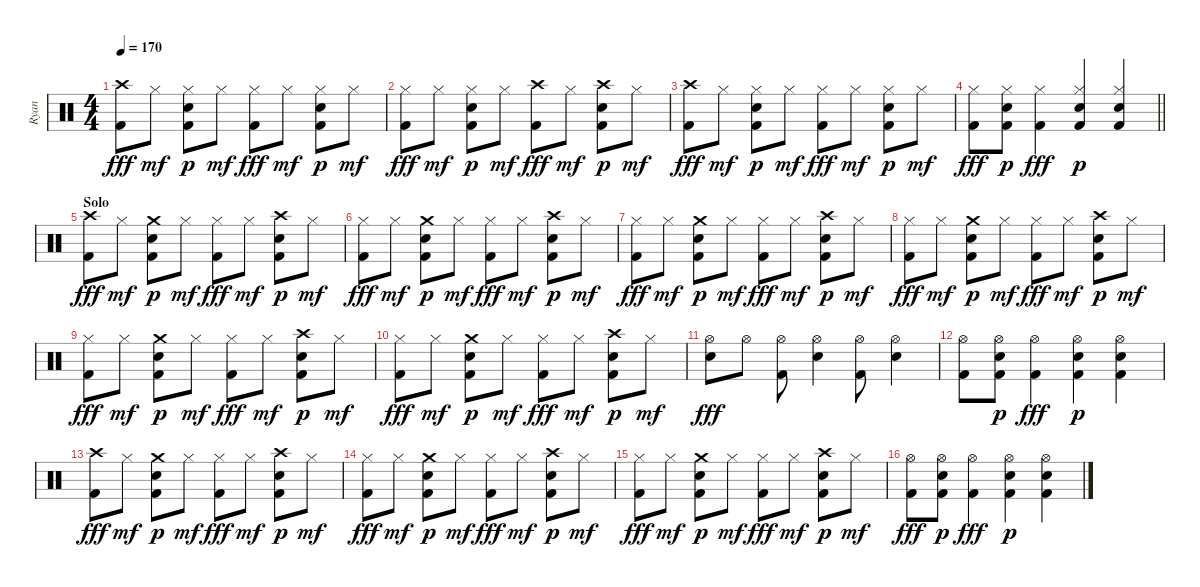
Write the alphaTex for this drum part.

\track ("Ryan" "Ryan") {instrument percussion}
\staff {score}
\articulation defaults
\ts (4 4)
\tempo 170
\clef neutral
\ks c
("Kick (hit) 2" "Crash high (hit)").8{dy fff} "Hi-Hat (closed)".8{dy mf} ("Snare (hit) 2" "Hi-Hat (closed)" "Kick (hit) 2").8{dy p} "Hi-Hat (closed)".8{dy mf} ("Kick (hit) 2" "Hi-Hat (closed)").8{dy fff} "Hi-Hat (closed)".8{dy mf} ("Snare (hit) 2" "Hi-Hat (closed)" "Kick (hit) 2").8{dy p} "Hi-Hat (closed)".8{dy mf} |
("Kick (hit) 2" "Hi-Hat (closed)").8{dy fff} "Hi-Hat (closed)".8{dy mf} ("Snare (hit) 2" "Hi-Hat (closed)" "Kick (hit) 2").8{dy p} "Hi-Hat (closed)".8{dy mf} ("Kick (hit) 2" "Crash high (hit)").8{dy fff} "Hi-Hat (closed)".8{dy mf} ("Snare (hit) 2" "Crash high (hit)" "Kick (hit) 2").8{dy p} "Hi-Hat (closed)".8{dy mf} |
("Kick (hit) 2" "Crash high (hit)").8{dy fff} "Hi-Hat (closed)".8{dy mf} ("Snare (hit) 2" "Hi-Hat (closed)" "Kick (hit) 2").8{dy p} "Hi-Hat (closed)".8{dy mf} ("Kick (hit) 2" "Hi-Hat (closed)").8{dy fff} "Hi-Hat (closed)".8{dy mf} ("Snare (hit) 2" "Hi-Hat (closed)" "Kick (hit) 2").8{dy p} "Hi-Hat (closed)".8{dy mf} |
\barLineRight lightlight
("Kick (hit) 2" "Hi-Hat (closed)").8{dy fff} ("Snare (hit) 2" "Hi-Hat (closed)" "Kick (hit) 2").8{dy p} ("Kick (hit) 2" "Hi-Hat (closed)").4{dy fff} ("Snare (hit) 2" "Hi-Hat (closed)" "Kick (hit) 2").4{dy p} ("Snare (hit) 2" "Hi-Hat (closed)" "Kick (hit) 2").4 |
\section ("" "Solo")
("Kick (hit) 2" "Crash high (hit)").8{dy fff} "Hi-Hat (closed)".8{dy mf} ("Snare (hit) 2" "Crash medium (hit)" "Kick (hit) 2").8{dy p} "Hi-Hat (closed)".8{dy mf} ("Kick (hit) 2" "Hi-Hat (closed)").8{dy fff} "Hi-Hat (closed)".8{dy mf} ("Snare (hit) 2" "Crash high (hit)" "Kick (hit) 2").8{dy p} "Hi-Hat (closed)".8{dy mf} |
("Kick (hit) 2" "Hi-Hat (closed)").8{dy fff} "Hi-Hat (closed)".8{dy mf} ("Snare (hit) 2" "Crash medium (hit)" "Kick (hit) 2").8{dy p} "Hi-Hat (closed)".8{dy mf} ("Kick (hit) 2" "Hi-Hat (closed)").8{dy fff} "Hi-Hat (closed)".8{dy mf} ("Snare (hit) 2" "Crash high (hit)" "Kick (hit) 2").8{dy p} "Hi-Hat (closed)".8{dy mf} |
("Kick (hit) 2" "Hi-Hat (closed)").8{dy fff} "Hi-Hat (closed)".8{dy mf} ("Snare (hit) 2" "Crash medium (hit)" "Kick (hit) 2").8{dy p} "Hi-Hat (closed)".8{dy mf} ("Kick (hit) 2" "Hi-Hat (closed)").8{dy fff} "Hi-Hat (closed)".8{dy mf} ("Snare (hit) 2" "Crash high (hit)" "Kick (hit) 2").8{dy p} "Hi-Hat (closed)".8{dy mf} |
("Kick (hit) 2" "Hi-Hat (closed)").8{dy fff} "Hi-Hat (closed)".8{dy mf} ("Snare (hit) 2" "Crash medium (hit)" "Kick (hit) 2").8{dy p} "Hi-Hat (closed)".8{dy mf} ("Kick (hit) 2" "Hi-Hat (closed)").8{dy fff} "Hi-Hat (closed)".8{dy mf} ("Snare (hit) 2" "Crash high (hit)" "Kick (hit) 2").8{dy p} "Hi-Hat (closed)".8{dy mf} |
("Kick (hit) 2" "Hi-Hat (closed)").8{dy fff} "Hi-Hat (closed)".8{dy mf} ("Snare (hit) 2" "Crash medium (hit)" "Kick (hit) 2").8{dy p} "Hi-Hat (closed)".8{dy mf} ("Kick (hit) 2" "Hi-Hat (closed)").8{dy fff} "Hi-Hat (closed)".8{dy mf} ("Snare (hit) 2" "Crash high (hit)" "Kick (hit) 2").8{dy p} "Hi-Hat (closed)".8{dy mf} |
("Kick (hit) 2" "Hi-Hat (closed)").8{dy fff} "Hi-Hat (closed)".8{dy mf} ("Snare (hit) 2" "Crash medium (hit)" "Kick (hit) 2").8{dy p} "Hi-Hat (closed)".8{dy mf} ("Kick (hit) 2" "Hi-Hat (closed)").8{dy fff} "Hi-Hat (closed)".8{dy mf} ("Snare (hit) 2" "Crash high (hit)" "Kick (hit) 2").8{dy p} "Hi-Hat (closed)".8{dy mf} |
("Hi-Hat (open)" "Snare (hit) 2").8{dy fff} "Hi-Hat (open)".8 ("Hi-Hat (open)" "Kick (hit) 2").8 ("Hi-Hat (open)" "Snare (hit) 2").4 ("Hi-Hat (open)" "Kick (hit) 2").8 ("Hi-Hat (open)" "Snare (hit) 2").4 |
("Kick (hit) 2" "Hi-Hat (open)").8 ("Snare (hit) 2" "Hi-Hat (open)" "Kick (hit) 2").8{dy p} ("Kick (hit) 2" "Hi-Hat (open)").4{dy fff} ("Snare (hit) 2" "Hi-Hat (open)" "Kick (hit) 2").4{dy p} ("Snare (hit) 2" "Hi-Hat (open)" "Kick (hit) 2").4 |
("Kick (hit) 2" "Crash high (hit)").8{dy fff} "Hi-Hat (closed)".8{dy mf} ("Snare (hit) 2" "Crash medium (hit)" "Kick (hit) 2").8{dy p} "Hi-Hat (closed)".8{dy mf} ("Kick (hit) 2" "Hi-Hat (closed)").8{dy fff} "Hi-Hat (closed)".8{dy mf} ("Snare (hit) 2" "Crash high (hit)" "Kick (hit) 2").8{dy p} "Hi-Hat (closed)".8{dy mf} |
("Kick (hit) 2" "Hi-Hat (closed)").8{dy fff} "Hi-Hat (closed)".8{dy mf} ("Snare (hit) 2" "Crash medium (hit)" "Kick (hit) 2").8{dy p} "Hi-Hat (closed)".8{dy mf} ("Kick (hit) 2" "Hi-Hat (closed)").8{dy fff} "Hi-Hat (closed)".8{dy mf} ("Snare (hit) 2" "Crash high (hit)" "Kick (hit) 2").8{dy p} "Hi-Hat (closed)".8{dy mf} |
("Kick (hit) 2" "Hi-Hat (closed)").8{dy fff} "Hi-Hat (closed)".8{dy mf} ("Snare (hit) 2" "Crash medium (hit)" "Kick (hit) 2").8{dy p} "Hi-Hat (closed)".8{dy mf} ("Kick (hit) 2" "Hi-Hat (closed)").8{dy fff} "Hi-Hat (closed)".8{dy mf} ("Snare (hit) 2" "Crash high (hit)" "Kick (hit) 2").8{dy p} "Hi-Hat (closed)".8{dy mf} |
("Kick (hit) 2" "Hi-Hat (open)").8{dy fff} ("Snare (hit) 2" "Hi-Hat (open)" "Kick (hit) 2").8{dy p} ("Kick (hit) 2" "Hi-Hat (open)").4{dy fff} ("Snare (hit) 2" "Hi-Hat (open)" "Kick (hit) 2").4{dy p} ("Snare (hit) 2" "Hi-Hat (open)" "Kick (hit) 2").4
